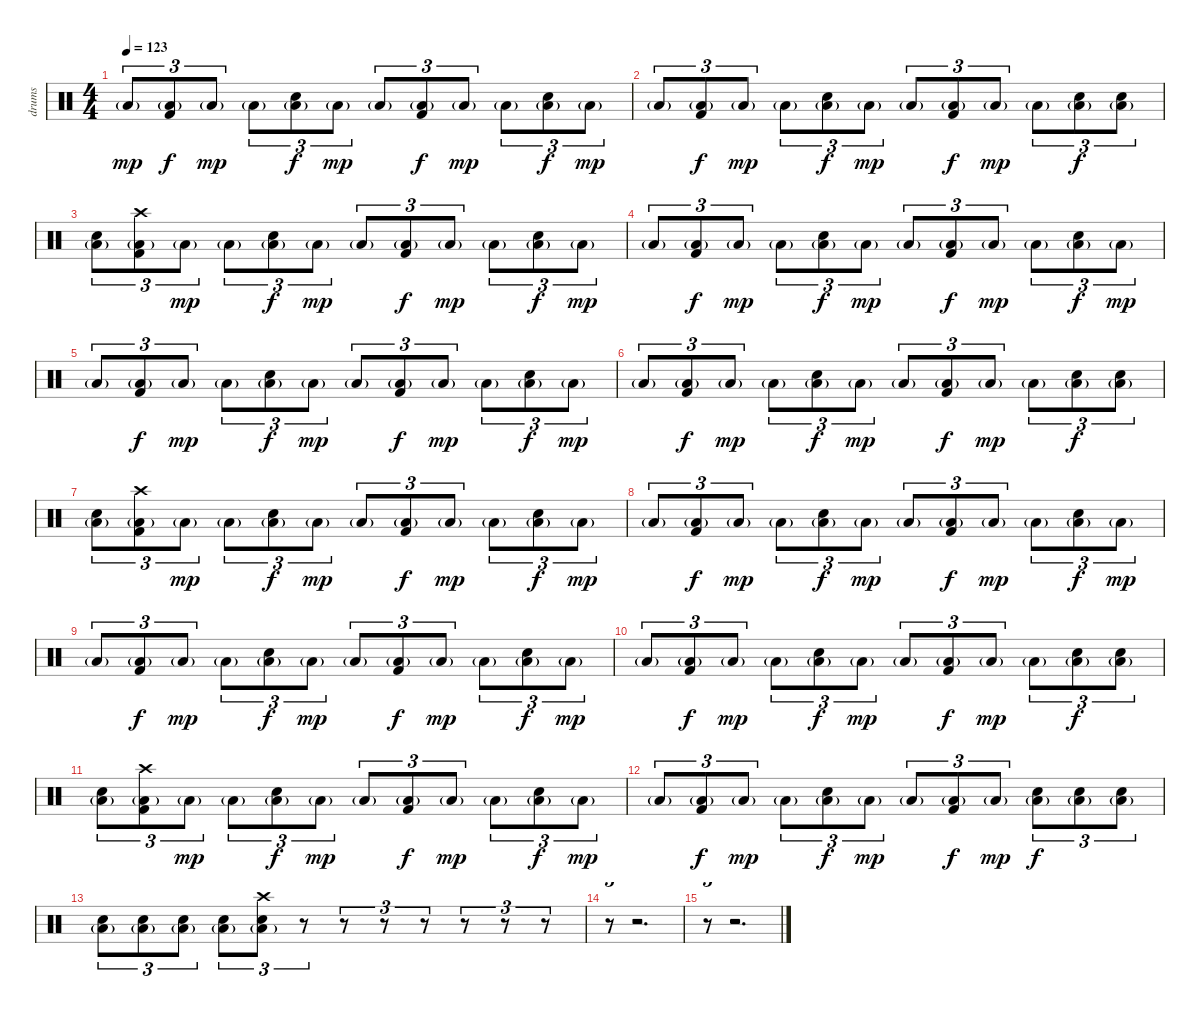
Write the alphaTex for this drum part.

\track ("drums" "drums") {instrument percussion}
\staff {score}
\articulation defaults
\ts (4 4)
\tempo 123
\clef neutral
\ks c "Low Floor Tom (hit)"{g}.8{tu (3 2) txt "" dy mp}
("Low Floor Tom (hit)"{g} "Kick (hit) 2").8{tu (3 2) txt "" dy f} "Low Floor Tom (hit)"{g}.8{tu (3 2) txt "" dy mp} "Low Floor Tom (hit)"{g}.8{tu (3 2) txt ""} ("Low Floor Tom (hit)"{g} "Electric Snare (hit)").8{tu (3 2) txt "" dy f} "Low Floor Tom (hit)"{g}.8{tu (3 2) txt "" dy mp} "Low Floor Tom (hit)"{g}.8{tu (3 2) txt ""} ("Low Floor Tom (hit)"{g} "Kick (hit) 2").8{tu (3 2) txt "" dy f} "Low Floor Tom (hit)"{g}.8{tu (3 2) txt "" dy mp} "Low Floor Tom (hit)"{g}.8{tu (3 2) txt ""} ("Low Floor Tom (hit)"{g} "Electric Snare (hit)").8{tu (3 2) txt "" dy f} "Low Floor Tom (hit)"{g}.8{tu (3 2) txt "" dy mp} |
"Low Floor Tom (hit)"{g}.8{tu (3 2) txt ""} ("Low Floor Tom (hit)"{g} "Kick (hit) 2").8{tu (3 2) txt "" dy f} "Low Floor Tom (hit)"{g}.8{tu (3 2) txt "" dy mp} "Low Floor Tom (hit)"{g}.8{tu (3 2) txt ""} ("Low Floor Tom (hit)"{g} "Electric Snare (hit)").8{tu (3 2) txt "" dy f} "Low Floor Tom (hit)"{g}.8{tu (3 2) txt "" dy mp} "Low Floor Tom (hit)"{g}.8{tu (3 2) txt ""} ("Low Floor Tom (hit)"{g} "Kick (hit) 2").8{tu (3 2) txt "" dy f} "Low Floor Tom (hit)"{g}.8{tu (3 2) txt "" dy mp} "Low Floor Tom (hit)"{g}.8{tu (3 2) txt ""} ("Low Floor Tom (hit)"{g} "Electric Snare (hit)").8{tu (3 2) txt "" dy f} ("Low Floor Tom (hit)"{g} "Electric Snare (hit)").8{tu (3 2) txt ""} |
("Low Floor Tom (hit)"{g} "Electric Snare (hit)").8{tu (3 2) txt ""} ("Low Floor Tom (hit)"{g} "Kick (hit) 2" "Crash high (hit)").8{tu (3 2) txt ""} "Low Floor Tom (hit)"{g}.8{tu (3 2) txt "" dy mp} "Low Floor Tom (hit)"{g}.8{tu (3 2) txt ""} ("Low Floor Tom (hit)"{g} "Electric Snare (hit)").8{tu (3 2) txt "" dy f} "Low Floor Tom (hit)"{g}.8{tu (3 2) txt "" dy mp} "Low Floor Tom (hit)"{g}.8{tu (3 2) txt ""} ("Low Floor Tom (hit)"{g} "Kick (hit) 2").8{tu (3 2) txt "" dy f} "Low Floor Tom (hit)"{g}.8{tu (3 2) txt "" dy mp} "Low Floor Tom (hit)"{g}.8{tu (3 2) txt ""} ("Low Floor Tom (hit)"{g} "Electric Snare (hit)").8{tu (3 2) txt "" dy f} "Low Floor Tom (hit)"{g}.8{tu (3 2) txt "" dy mp} |
"Low Floor Tom (hit)"{g}.8{tu (3 2) txt ""} ("Low Floor Tom (hit)"{g} "Kick (hit) 2").8{tu (3 2) txt "" dy f} "Low Floor Tom (hit)"{g}.8{tu (3 2) txt "" dy mp} "Low Floor Tom (hit)"{g}.8{tu (3 2) txt ""} ("Low Floor Tom (hit)"{g} "Electric Snare (hit)").8{tu (3 2) txt "" dy f} "Low Floor Tom (hit)"{g}.8{tu (3 2) txt "" dy mp} "Low Floor Tom (hit)"{g}.8{tu (3 2) txt ""} ("Low Floor Tom (hit)"{g} "Kick (hit) 2").8{tu (3 2) txt "" dy f} "Low Floor Tom (hit)"{g}.8{tu (3 2) txt "" dy mp} "Low Floor Tom (hit)"{g}.8{tu (3 2) txt ""} ("Low Floor Tom (hit)"{g} "Electric Snare (hit)").8{tu (3 2) txt "" dy f} "Low Floor Tom (hit)"{g}.8{tu (3 2) txt "" dy mp} |
"Low Floor Tom (hit)"{g}.8{tu (3 2) txt ""} ("Low Floor Tom (hit)"{g} "Kick (hit) 2").8{tu (3 2) txt "" dy f} "Low Floor Tom (hit)"{g}.8{tu (3 2) txt "" dy mp} "Low Floor Tom (hit)"{g}.8{tu (3 2) txt ""} ("Low Floor Tom (hit)"{g} "Electric Snare (hit)").8{tu (3 2) txt "" dy f} "Low Floor Tom (hit)"{g}.8{tu (3 2) txt "" dy mp} "Low Floor Tom (hit)"{g}.8{tu (3 2) txt ""} ("Low Floor Tom (hit)"{g} "Kick (hit) 2").8{tu (3 2) txt "" dy f} "Low Floor Tom (hit)"{g}.8{tu (3 2) txt "" dy mp} "Low Floor Tom (hit)"{g}.8{tu (3 2) txt ""} ("Low Floor Tom (hit)"{g} "Electric Snare (hit)").8{tu (3 2) txt "" dy f} "Low Floor Tom (hit)"{g}.8{tu (3 2) txt "" dy mp} |
"Low Floor Tom (hit)"{g}.8{tu (3 2) txt ""} ("Low Floor Tom (hit)"{g} "Kick (hit) 2").8{tu (3 2) txt "" dy f} "Low Floor Tom (hit)"{g}.8{tu (3 2) txt "" dy mp} "Low Floor Tom (hit)"{g}.8{tu (3 2) txt ""} ("Low Floor Tom (hit)"{g} "Electric Snare (hit)").8{tu (3 2) txt "" dy f} "Low Floor Tom (hit)"{g}.8{tu (3 2) txt "" dy mp} "Low Floor Tom (hit)"{g}.8{tu (3 2) txt ""} ("Low Floor Tom (hit)"{g} "Kick (hit) 2").8{tu (3 2) txt "" dy f} "Low Floor Tom (hit)"{g}.8{tu (3 2) txt "" dy mp} "Low Floor Tom (hit)"{g}.8{tu (3 2) txt ""} ("Low Floor Tom (hit)"{g} "Electric Snare (hit)").8{tu (3 2) txt "" dy f} ("Low Floor Tom (hit)"{g} "Electric Snare (hit)").8{tu (3 2) txt ""} |
("Low Floor Tom (hit)"{g} "Electric Snare (hit)").8{tu (3 2) txt ""} ("Low Floor Tom (hit)"{g} "Kick (hit) 2" "Crash high (hit)").8{tu (3 2) txt ""} "Low Floor Tom (hit)"{g}.8{tu (3 2) txt "" dy mp} "Low Floor Tom (hit)"{g}.8{tu (3 2) txt ""} ("Low Floor Tom (hit)"{g} "Electric Snare (hit)").8{tu (3 2) txt "" dy f} "Low Floor Tom (hit)"{g}.8{tu (3 2) txt "" dy mp} "Low Floor Tom (hit)"{g}.8{tu (3 2) txt ""} ("Low Floor Tom (hit)"{g} "Kick (hit) 2").8{tu (3 2) txt "" dy f} "Low Floor Tom (hit)"{g}.8{tu (3 2) txt "" dy mp} "Low Floor Tom (hit)"{g}.8{tu (3 2) txt ""} ("Low Floor Tom (hit)"{g} "Electric Snare (hit)").8{tu (3 2) txt "" dy f} "Low Floor Tom (hit)"{g}.8{tu (3 2) txt "" dy mp} |
"Low Floor Tom (hit)"{g}.8{tu (3 2) txt ""} ("Low Floor Tom (hit)"{g} "Kick (hit) 2").8{tu (3 2) txt "" dy f} "Low Floor Tom (hit)"{g}.8{tu (3 2) txt "" dy mp} "Low Floor Tom (hit)"{g}.8{tu (3 2) txt ""} ("Low Floor Tom (hit)"{g} "Electric Snare (hit)").8{tu (3 2) txt "" dy f} "Low Floor Tom (hit)"{g}.8{tu (3 2) txt "" dy mp} "Low Floor Tom (hit)"{g}.8{tu (3 2) txt ""} ("Low Floor Tom (hit)"{g} "Kick (hit) 2").8{tu (3 2) txt "" dy f} "Low Floor Tom (hit)"{g}.8{tu (3 2) txt "" dy mp} "Low Floor Tom (hit)"{g}.8{tu (3 2) txt ""} ("Low Floor Tom (hit)"{g} "Electric Snare (hit)").8{tu (3 2) txt "" dy f} "Low Floor Tom (hit)"{g}.8{tu (3 2) txt "" dy mp} |
"Low Floor Tom (hit)"{g}.8{tu (3 2) txt ""} ("Low Floor Tom (hit)"{g} "Kick (hit) 2").8{tu (3 2) txt "" dy f} "Low Floor Tom (hit)"{g}.8{tu (3 2) txt "" dy mp} "Low Floor Tom (hit)"{g}.8{tu (3 2) txt ""} ("Low Floor Tom (hit)"{g} "Electric Snare (hit)").8{tu (3 2) txt "" dy f} "Low Floor Tom (hit)"{g}.8{tu (3 2) txt "" dy mp} "Low Floor Tom (hit)"{g}.8{tu (3 2) txt ""} ("Low Floor Tom (hit)"{g} "Kick (hit) 2").8{tu (3 2) txt "" dy f} "Low Floor Tom (hit)"{g}.8{tu (3 2) txt "" dy mp} "Low Floor Tom (hit)"{g}.8{tu (3 2) txt ""} ("Low Floor Tom (hit)"{g} "Electric Snare (hit)").8{tu (3 2) txt "" dy f} "Low Floor Tom (hit)"{g}.8{tu (3 2) txt "" dy mp} |
"Low Floor Tom (hit)"{g}.8{tu (3 2) txt ""} ("Low Floor Tom (hit)"{g} "Kick (hit) 2").8{tu (3 2) txt "" dy f} "Low Floor Tom (hit)"{g}.8{tu (3 2) txt "" dy mp} "Low Floor Tom (hit)"{g}.8{tu (3 2) txt ""} ("Low Floor Tom (hit)"{g} "Electric Snare (hit)").8{tu (3 2) txt "" dy f} "Low Floor Tom (hit)"{g}.8{tu (3 2) txt "" dy mp} "Low Floor Tom (hit)"{g}.8{tu (3 2) txt ""} ("Low Floor Tom (hit)"{g} "Kick (hit) 2").8{tu (3 2) txt "" dy f} "Low Floor Tom (hit)"{g}.8{tu (3 2) txt "" dy mp} "Low Floor Tom (hit)"{g}.8{tu (3 2) txt ""} ("Low Floor Tom (hit)"{g} "Electric Snare (hit)").8{tu (3 2) txt "" dy f} ("Low Floor Tom (hit)"{g} "Electric Snare (hit)").8{tu (3 2) txt ""} |
("Low Floor Tom (hit)"{g} "Electric Snare (hit)").8{tu (3 2) txt ""} ("Low Floor Tom (hit)"{g} "Kick (hit) 2" "Crash high (hit)").8{tu (3 2) txt ""} "Low Floor Tom (hit)"{g}.8{tu (3 2) txt "" dy mp} "Low Floor Tom (hit)"{g}.8{tu (3 2) txt ""} ("Low Floor Tom (hit)"{g} "Electric Snare (hit)").8{tu (3 2) txt "" dy f} "Low Floor Tom (hit)"{g}.8{tu (3 2) txt "" dy mp} "Low Floor Tom (hit)"{g}.8{tu (3 2) txt ""} ("Low Floor Tom (hit)"{g} "Kick (hit) 2").8{tu (3 2) txt "" dy f} "Low Floor Tom (hit)"{g}.8{tu (3 2) txt "" dy mp} "Low Floor Tom (hit)"{g}.8{tu (3 2) txt ""} ("Low Floor Tom (hit)"{g} "Electric Snare (hit)").8{tu (3 2) txt "" dy f} "Low Floor Tom (hit)"{g}.8{tu (3 2) txt "" dy mp} |
"Low Floor Tom (hit)"{g}.8{tu (3 2) txt ""} ("Low Floor Tom (hit)"{g} "Kick (hit) 2").8{tu (3 2) txt "" dy f} "Low Floor Tom (hit)"{g}.8{tu (3 2) txt "" dy mp} "Low Floor Tom (hit)"{g}.8{tu (3 2) txt ""} ("Low Floor Tom (hit)"{g} "Electric Snare (hit)").8{tu (3 2) txt "" dy f} "Low Floor Tom (hit)"{g}.8{tu (3 2) txt "" dy mp} "Low Floor Tom (hit)"{g}.8{tu (3 2) txt ""} ("Low Floor Tom (hit)"{g} "Kick (hit) 2").8{tu (3 2) txt "" dy f} "Low Floor Tom (hit)"{g}.8{tu (3 2) txt "" dy mp} ("Low Floor Tom (hit)"{g} "Electric Snare (hit)").8{tu (3 2) txt "" dy f} ("Low Floor Tom (hit)"{g} "Electric Snare (hit)").8{tu (3 2) txt ""} ("Low Floor Tom (hit)"{g} "Electric Snare (hit)").8{tu (3 2) txt ""} |
("Low Floor Tom (hit)"{g} "Electric Snare (hit)").8{tu (3 2) txt ""} ("Low Floor Tom (hit)"{g} "Electric Snare (hit)").8{tu (3 2) txt ""} ("Low Floor Tom (hit)"{g} "Electric Snare (hit)").8{tu (3 2) txt ""} ("Low Floor Tom (hit)"{g} "Electric Snare (hit)").8{tu (3 2) txt ""} ("Low Floor Tom (hit)"{g} "Electric Snare (hit)" "Crash high (hit)").8{tu (3 2) txt ""} r.8{tu (3 2) txt ""} r.8{tu (3 2) txt ""} r.8{tu (3 2) txt ""} r.8{tu (3 2) txt ""} r.8{tu (3 2) txt ""} r.8{tu (3 2) txt ""} r.8{tu (3 2) txt ""} |
r.8{tu (3 2) txt ""} r.2{d txt ""} |
r.8{tu (3 2) txt ""} r.2{d txt ""}
